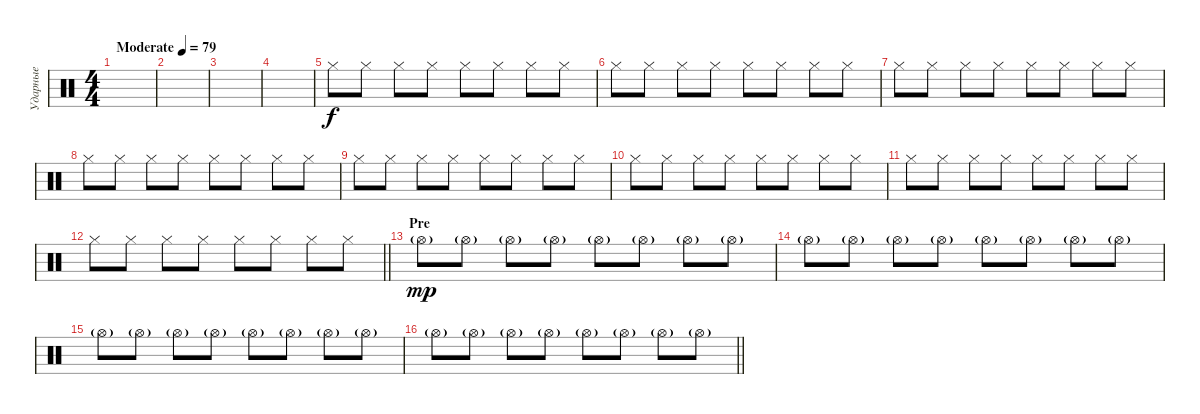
\track ("Ударные" "Ударные") {instrument percussion}
\staff {score}
\articulation defaults
\ts (4 4)
\tempo (79 "Moderate")
\clef neutral
\ks c
|
|
|
|
"Hi-Hat (closed)".8 "Hi-Hat (closed)".8 "Hi-Hat (closed)".8 "Hi-Hat (closed)".8 "Hi-Hat (closed)".8 "Hi-Hat (closed)".8 "Hi-Hat (closed)".8 "Hi-Hat (closed)".8 |
"Hi-Hat (closed)".8 "Hi-Hat (closed)".8 "Hi-Hat (closed)".8 "Hi-Hat (closed)".8 "Hi-Hat (closed)".8 "Hi-Hat (closed)".8 "Hi-Hat (closed)".8 "Hi-Hat (closed)".8 |
"Hi-Hat (closed)".8 "Hi-Hat (closed)".8 "Hi-Hat (closed)".8 "Hi-Hat (closed)".8 "Hi-Hat (closed)".8 "Hi-Hat (closed)".8 "Hi-Hat (closed)".8 "Hi-Hat (closed)".8 |
"Hi-Hat (closed)".8 "Hi-Hat (closed)".8 "Hi-Hat (closed)".8 "Hi-Hat (closed)".8 "Hi-Hat (closed)".8 "Hi-Hat (closed)".8 "Hi-Hat (closed)".8 "Hi-Hat (closed)".8 |
"Hi-Hat (closed)".8 "Hi-Hat (closed)".8 "Hi-Hat (closed)".8 "Hi-Hat (closed)".8 "Hi-Hat (closed)".8 "Hi-Hat (closed)".8 "Hi-Hat (closed)".8 "Hi-Hat (closed)".8 |
"Hi-Hat (closed)".8 "Hi-Hat (closed)".8 "Hi-Hat (closed)".8 "Hi-Hat (closed)".8 "Hi-Hat (closed)".8 "Hi-Hat (closed)".8 "Hi-Hat (closed)".8 "Hi-Hat (closed)".8 |
"Hi-Hat (closed)".8 "Hi-Hat (closed)".8 "Hi-Hat (closed)".8 "Hi-Hat (closed)".8 "Hi-Hat (closed)".8 "Hi-Hat (closed)".8 "Hi-Hat (closed)".8 "Hi-Hat (closed)".8 |
\barLineRight lightlight "Hi-Hat (closed)".8 "Hi-Hat (closed)".8 "Hi-Hat (closed)".8 "Hi-Hat (closed)".8 "Hi-Hat (closed)".8 "Hi-Hat (closed)".8 "Hi-Hat (closed)".8 "Hi-Hat (closed)".8
|
\section ("" "Pre")
"Hi-Hat (open)"{g}.8{dy mp} "Hi-Hat (open)"{g}.8 "Hi-Hat (open)"{g}.8 "Hi-Hat (open)"{g}.8 "Hi-Hat (open)"{g}.8 "Hi-Hat (open)"{g}.8 "Hi-Hat (open)"{g}.8 "Hi-Hat (open)"{g}.8 |
"Hi-Hat (open)"{g}.8 "Hi-Hat (open)"{g}.8 "Hi-Hat (open)"{g}.8 "Hi-Hat (open)"{g}.8 "Hi-Hat (open)"{g}.8 "Hi-Hat (open)"{g}.8 "Hi-Hat (open)"{g}.8 "Hi-Hat (open)"{g}.8 |
"Hi-Hat (open)"{g}.8 "Hi-Hat (open)"{g}.8 "Hi-Hat (open)"{g}.8 "Hi-Hat (open)"{g}.8 "Hi-Hat (open)"{g}.8 "Hi-Hat (open)"{g}.8 "Hi-Hat (open)"{g}.8 "Hi-Hat (open)"{g}.8 |
\barLineRight lightlight "Hi-Hat (open)"{g}.8 "Hi-Hat (open)"{g}.8 "Hi-Hat (open)"{g}.8 "Hi-Hat (open)"{g}.8 "Hi-Hat (open)"{g}.8 "Hi-Hat (open)"{g}.8 "Hi-Hat (open)"{g}.8 "Hi-Hat (open)"{g}.8
